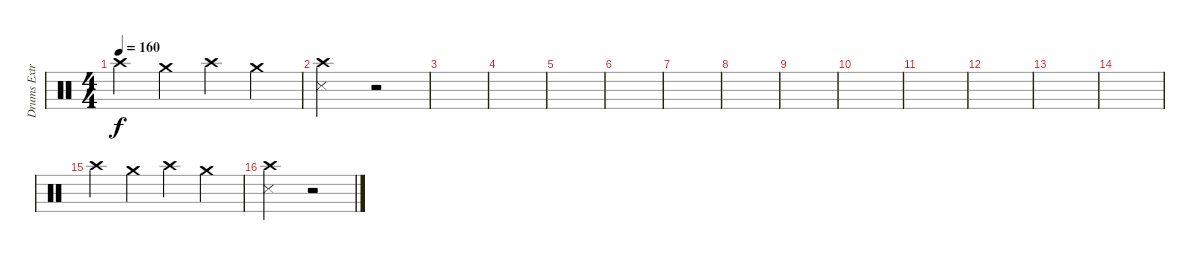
\track ("Drums Extra" "Drums Extr") {instrument percussion}
\staff {score}
\articulation defaults
\ts (4 4)
\tempo 160
\clef neutral
\ks c "Crash high (hit)".4{dy f} "Crash medium (hit)".4 "Crash high (hit)".4 "Crash medium (hit)".4
|
("Crash high (hit)" "Metronome (hit)").2 r.2 |
|
|
|
|
|
|
|
|
|
|
|
|
"Crash high (hit)".4 "Crash medium (hit)".4 "Crash high (hit)".4 "Crash medium (hit)".4 |
("Crash high (hit)" "Metronome (hit)").2 r.2
